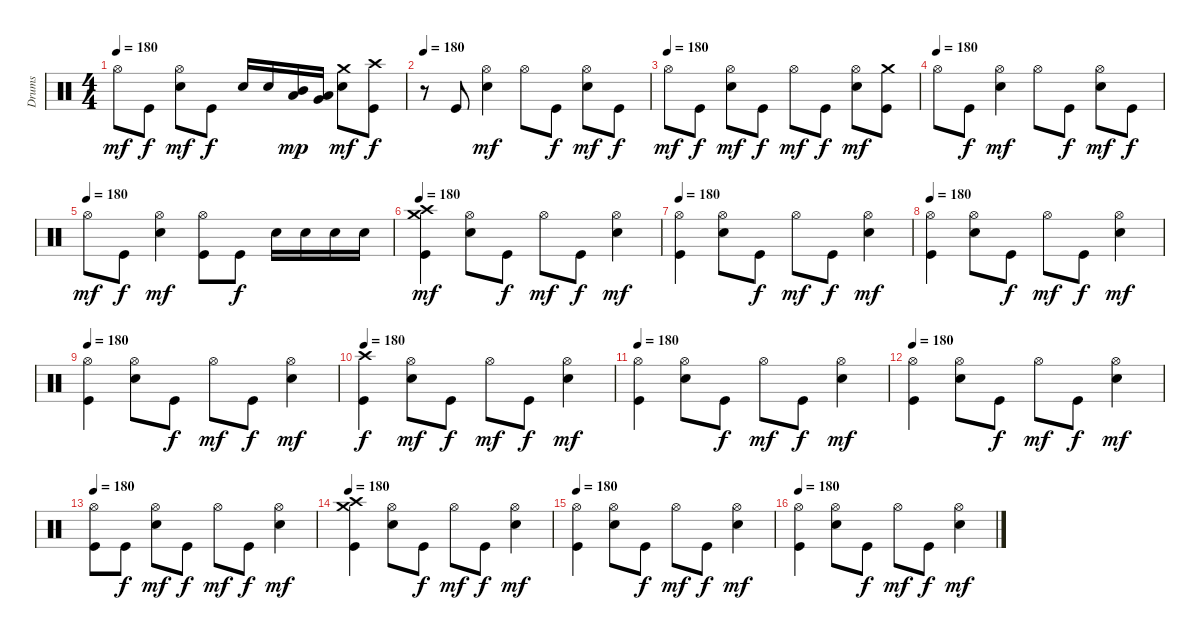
\track ("Drums" "Drums") {instrument percussion}
\staff {score}
\articulation defaults
\ts (4 4)
\tempo 180
\clef neutral
\ks c "Hi-Hat (open)".8{dy mf} "Kick (hit)".8{dy f}
("Electric Snare (hit)" "Hi-Hat (open)").8{dy mf} "Kick (hit)".8{dy f} "Electric Snare (hit)".16 "Electric Snare (hit)".16 ("Low Tom (hit)" "Mid Tom (hit)").16{dy mp} ("Very Low Tom (hit)" "Low Tom (hit)").16 ("Electric Snare (hit)" "Crash medium (hit)").8{dy mf} ("Kick (hit)" "Crash high (hit)").8{dy f} |
\tempo 180
r.8 "Kick (hit)".8 ("Electric Snare (hit)" "Hi-Hat (open)").4{dy mf} "Hi-Hat (open)".8 "Kick (hit)".8{dy f} ("Electric Snare (hit)" "Hi-Hat (open)").8{dy mf} "Kick (hit)".8{dy f} |
\tempo (180)
"Hi-Hat (open)".8{dy mf} "Kick (hit)".8{dy f} ("Electric Snare (hit)" "Hi-Hat (open)").8{dy mf} "Kick (hit)".8{dy f} "Hi-Hat (open)".8{dy mf} "Kick (hit)".8{dy f} ("Electric Snare (hit)" "Hi-Hat (open)").8{dy mf} ("Kick (hit)" "Crash medium (hit)").8 |
\tempo (180)
"Hi-Hat (open)".8 "Kick (hit)".8{dy f} ("Electric Snare (hit)" "Hi-Hat (open)").4{dy mf} "Hi-Hat (open)".8 "Kick (hit)".8{dy f} ("Electric Snare (hit)" "Hi-Hat (open)").8{dy mf} "Kick (hit)".8{dy f} |
\tempo (180)
"Hi-Hat (open)".8{dy mf} "Kick (hit)".8{dy f} ("Electric Snare (hit)" "Hi-Hat (open)").4{dy mf} ("Kick (hit)" "Hi-Hat (open)").8 "Kick (hit)".8{dy f} "Electric Snare (hit)".16 "Electric Snare (hit)".16 "Electric Snare (hit)".16 "Electric Snare (hit)".16 |
\tempo 180
("Kick (hit)" "Crash high (hit)" "Crash medium (hit)").4{dy mf} ("Electric Snare (hit)" "Hi-Hat (open)").8 "Kick (hit)".8{dy f} "Hi-Hat (open)".8{dy mf} "Kick (hit)".8{dy f} ("Electric Snare (hit)" "Hi-Hat (open)").4{dy mf} |
\tempo 180
("Kick (hit)" "Hi-Hat (open)").4 ("Electric Snare (hit)" "Hi-Hat (open)").8 "Kick (hit)".8{dy f} "Hi-Hat (open)".8{dy mf} "Kick (hit)".8{dy f} ("Electric Snare (hit)" "Hi-Hat (open)").4{dy mf} |
\tempo 180
("Kick (hit)" "Hi-Hat (open)").4 ("Electric Snare (hit)" "Hi-Hat (open)").8 "Kick (hit)".8{dy f} "Hi-Hat (open)".8{dy mf} "Kick (hit)".8{dy f} ("Electric Snare (hit)" "Hi-Hat (open)").4{dy mf} |
\tempo 180
("Kick (hit)" "Hi-Hat (open)").4 ("Electric Snare (hit)" "Hi-Hat (open)").8 "Kick (hit)".8{dy f} "Hi-Hat (open)".8{dy mf} "Kick (hit)".8{dy f} ("Electric Snare (hit)" "Hi-Hat (open)").4{dy mf} |
\tempo 180
("Kick (hit)" "Crash high (hit)").4{dy f} ("Electric Snare (hit)" "Hi-Hat (open)").8{dy mf} "Kick (hit)".8{dy f} "Hi-Hat (open)".8{dy mf} "Kick (hit)".8{dy f} ("Electric Snare (hit)" "Hi-Hat (open)").4{dy mf} |
\tempo 180
("Kick (hit)" "Hi-Hat (open)").4 ("Electric Snare (hit)" "Hi-Hat (open)").8 "Kick (hit)".8{dy f} "Hi-Hat (open)".8{dy mf} "Kick (hit)".8{dy f} ("Electric Snare (hit)" "Hi-Hat (open)").4{dy mf} |
\tempo 180
("Kick (hit)" "Hi-Hat (open)").4 ("Electric Snare (hit)" "Hi-Hat (open)").8 "Kick (hit)".8{dy f} "Hi-Hat (open)".8{dy mf} "Kick (hit)".8{dy f} ("Electric Snare (hit)" "Hi-Hat (open)").4{dy mf} |
\tempo 180
("Kick (hit)" "Hi-Hat (open)").8 "Kick (hit)".8{dy f} ("Electric Snare (hit)" "Hi-Hat (open)").8{dy mf} "Kick (hit)".8{dy f} "Hi-Hat (open)".8{dy mf} "Kick (hit)".8{dy f} ("Electric Snare (hit)" "Hi-Hat (open)").4{dy mf} |
\tempo 180
("Kick (hit)" "Crash high (hit)" "Crash medium (hit)").4 ("Electric Snare (hit)" "Hi-Hat (open)").8 "Kick (hit)".8{dy f} "Hi-Hat (open)".8{dy mf} "Kick (hit)".8{dy f} ("Electric Snare (hit)" "Hi-Hat (open)").4{dy mf} |
\tempo 180
("Kick (hit)" "Hi-Hat (open)").4 ("Electric Snare (hit)" "Hi-Hat (open)").8 "Kick (hit)".8{dy f} "Hi-Hat (open)".8{dy mf} "Kick (hit)".8{dy f} ("Electric Snare (hit)" "Hi-Hat (open)").4{dy mf} |
\tempo 180
("Kick (hit)" "Hi-Hat (open)").4 ("Electric Snare (hit)" "Hi-Hat (open)").8 "Kick (hit)".8{dy f} "Hi-Hat (open)".8{dy mf} "Kick (hit)".8{dy f} ("Electric Snare (hit)" "Hi-Hat (open)").4{dy mf}
